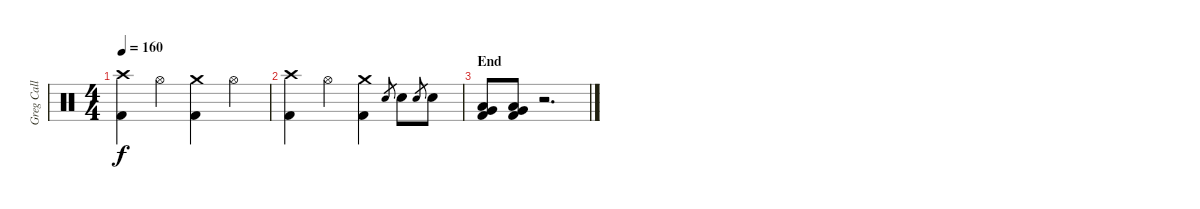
\track ("Greg Call (Drums)" "Greg Call ") {instrument percussion}
\staff {score}
\articulation defaults
\ts (4 4)
\tempo 152
\tempo 160
\clef neutral
\ks c
("Crash high (hit)" "Kick (hit) 2").4{dy f} "Hi-Hat (open)".4 ("Kick (hit) 2" "Crash medium (hit)").4 "Hi-Hat (open)".4 |
("Crash high (hit)" "Kick (hit) 2").4 "Hi-Hat (open)".4 ("Crash medium (hit)" "Kick (hit) 2").4 "Snare (hit) 2".8{gr} "Snare (hit) 2".8 "Snare (hit) 2".8{gr} "Snare (hit) 2".8 |
\section ("" "End")
("Very Low Tom (hit)" "Low Floor Tom (hit)" "Kick (hit) 2").8 ("Very Low Tom (hit)" "Low Floor Tom (hit)" "Kick (hit) 2").8 r.2{d}
